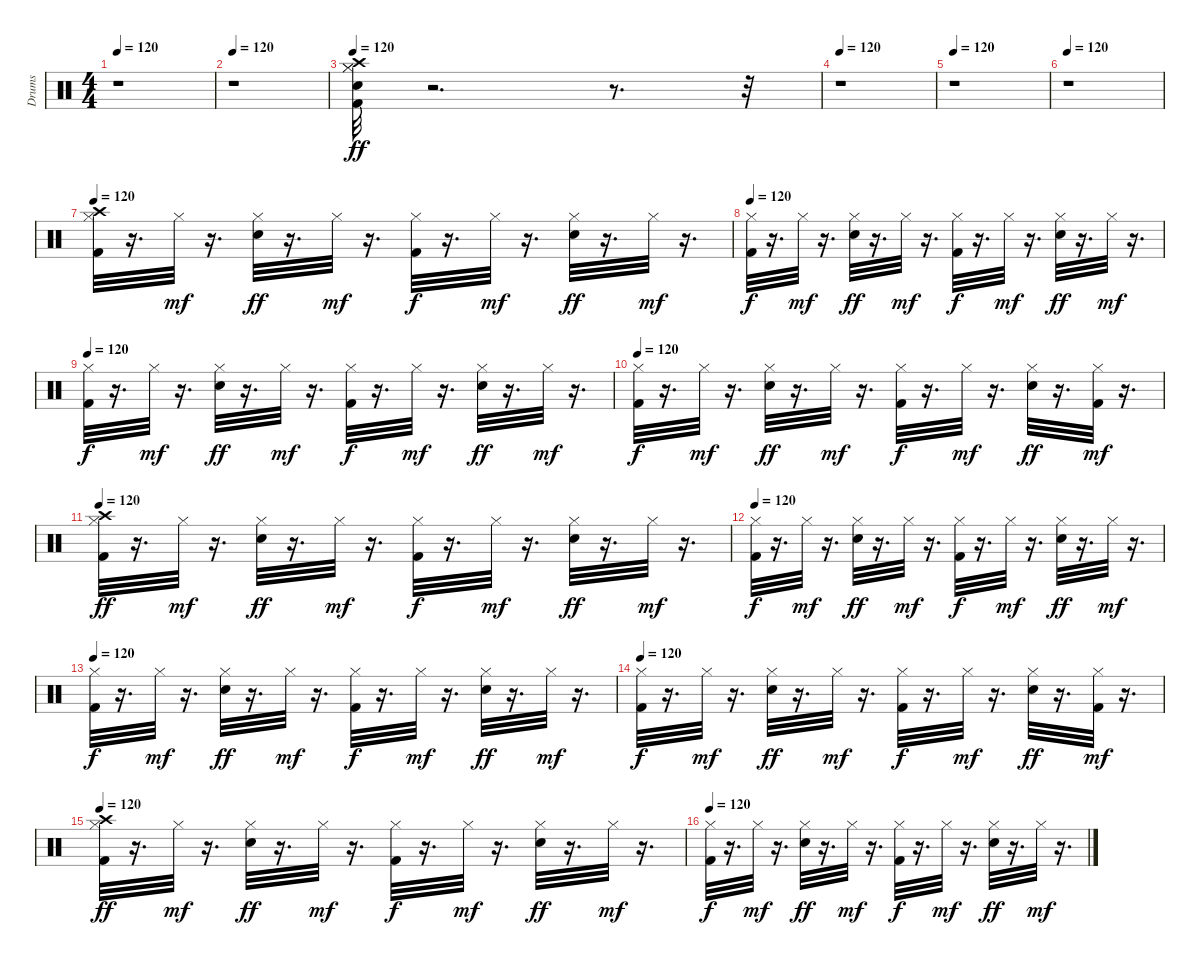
\track ("Drums" "Drums") {instrument percussion}
\staff {score}
\articulation defaults
\ts (4 4)
\tempo 120
\clef neutral
\ks c
r.1{dy ff} |
\tempo 120
r.1 |
\tempo 120
("Kick (hit) 2" "Hi-Hat (closed)" "Snare (hit) 2" "Hi-Hat (closed)" "Crash high (hit)").32 r.2{d} r.8{d} r.32 |
\tempo 120
r.1 |
\tempo 120
r.1 |
\tempo 120
r.1 |
\tempo 120
("Kick (hit) 2" "Hi-Hat (closed)" "Crash high (hit)").32 r.16{d} "Hi-Hat (closed)".32{dy mf} r.16{d} ("Snare (hit) 2" "Hi-Hat (closed)").32{dy ff} r.16{d} "Hi-Hat (closed)".32{dy mf} r.16{d} ("Kick (hit) 2" "Hi-Hat (closed)").32{dy f} r.16{d} "Hi-Hat (closed)".32{dy mf} r.16{d} ("Snare (hit) 2" "Hi-Hat (closed)").32{dy ff} r.16{d} "Hi-Hat (closed)".32{dy mf} r.16{d} |
\tempo 120
("Kick (hit) 2" "Hi-Hat (closed)").32{dy f} r.16{d} "Hi-Hat (closed)".32{dy mf} r.16{d} ("Snare (hit) 2" "Hi-Hat (closed)").32{dy ff} r.16{d} "Hi-Hat (closed)".32{dy mf} r.16{d} ("Kick (hit) 2" "Hi-Hat (closed)").32{dy f} r.16{d} "Hi-Hat (closed)".32{dy mf} r.16{d} ("Snare (hit) 2" "Hi-Hat (closed)").32{dy ff} r.16{d} "Hi-Hat (closed)".32{dy mf} r.16{d} |
\tempo 120
("Kick (hit) 2" "Hi-Hat (closed)").32{dy f} r.16{d} "Hi-Hat (closed)".32{dy mf} r.16{d} ("Snare (hit) 2" "Hi-Hat (closed)").32{dy ff} r.16{d} "Hi-Hat (closed)".32{dy mf} r.16{d} ("Kick (hit) 2" "Hi-Hat (closed)").32{dy f} r.16{d} "Hi-Hat (closed)".32{dy mf} r.16{d} ("Snare (hit) 2" "Hi-Hat (closed)").32{dy ff} r.16{d} "Hi-Hat (closed)".32{dy mf} r.16{d} |
\tempo 120
("Kick (hit) 2" "Hi-Hat (closed)").32{dy f} r.16{d} "Hi-Hat (closed)".32{dy mf} r.16{d} ("Snare (hit) 2" "Hi-Hat (closed)").32{dy ff} r.16{d} "Hi-Hat (closed)".32{dy mf} r.16{d} ("Kick (hit) 2" "Hi-Hat (closed)").32{dy f} r.16{d} "Hi-Hat (closed)".32{dy mf} r.16{d} ("Snare (hit) 2" "Hi-Hat (closed)").32{dy ff} r.16{d} ("Kick (hit) 2" "Hi-Hat (closed)").32{dy mf} r.16{d} |
\tempo 120
("Kick (hit) 2" "Hi-Hat (closed)" "Crash high (hit)").32{dy ff} r.16{d} "Hi-Hat (closed)".32{dy mf} r.16{d} ("Snare (hit) 2" "Hi-Hat (closed)").32{dy ff} r.16{d} "Hi-Hat (closed)".32{dy mf} r.16{d} ("Kick (hit) 2" "Hi-Hat (closed)").32{dy f} r.16{d} "Hi-Hat (closed)".32{dy mf} r.16{d} ("Snare (hit) 2" "Hi-Hat (closed)").32{dy ff} r.16{d} "Hi-Hat (closed)".32{dy mf} r.16{d} |
\tempo 120
("Kick (hit) 2" "Hi-Hat (closed)").32{dy f} r.16{d} "Hi-Hat (closed)".32{dy mf} r.16{d} ("Snare (hit) 2" "Hi-Hat (closed)").32{dy ff} r.16{d} "Hi-Hat (closed)".32{dy mf} r.16{d} ("Kick (hit) 2" "Hi-Hat (closed)").32{dy f} r.16{d} "Hi-Hat (closed)".32{dy mf} r.16{d} ("Snare (hit) 2" "Hi-Hat (closed)").32{dy ff} r.16{d} "Hi-Hat (closed)".32{dy mf} r.16{d} |
\tempo 120
("Kick (hit) 2" "Hi-Hat (closed)").32{dy f} r.16{d} "Hi-Hat (closed)".32{dy mf} r.16{d} ("Snare (hit) 2" "Hi-Hat (closed)").32{dy ff} r.16{d} "Hi-Hat (closed)".32{dy mf} r.16{d} ("Kick (hit) 2" "Hi-Hat (closed)").32{dy f} r.16{d} "Hi-Hat (closed)".32{dy mf} r.16{d} ("Snare (hit) 2" "Hi-Hat (closed)").32{dy ff} r.16{d} "Hi-Hat (closed)".32{dy mf} r.16{d} |
\tempo 120
("Kick (hit) 2" "Hi-Hat (closed)").32{dy f} r.16{d} "Hi-Hat (closed)".32{dy mf} r.16{d} ("Snare (hit) 2" "Hi-Hat (closed)").32{dy ff} r.16{d} "Hi-Hat (closed)".32{dy mf} r.16{d} ("Kick (hit) 2" "Hi-Hat (closed)").32{dy f} r.16{d} "Hi-Hat (closed)".32{dy mf} r.16{d} ("Snare (hit) 2" "Hi-Hat (closed)").32{dy ff} r.16{d} ("Kick (hit) 2" "Hi-Hat (closed)").32{dy mf} r.16{d} |
\tempo 120
("Kick (hit) 2" "Hi-Hat (closed)" "Crash high (hit)").32{dy ff} r.16{d} "Hi-Hat (closed)".32{dy mf} r.16{d} ("Snare (hit) 2" "Hi-Hat (closed)").32{dy ff} r.16{d} "Hi-Hat (closed)".32{dy mf} r.16{d} ("Kick (hit) 2" "Hi-Hat (closed)").32{dy f} r.16{d} "Hi-Hat (closed)".32{dy mf} r.16{d} ("Snare (hit) 2" "Hi-Hat (closed)").32{dy ff} r.16{d} "Hi-Hat (closed)".32{dy mf} r.16{d} |
\tempo 120
("Kick (hit) 2" "Hi-Hat (closed)").32{dy f} r.16{d} "Hi-Hat (closed)".32{dy mf} r.16{d} ("Snare (hit) 2" "Hi-Hat (closed)").32{dy ff} r.16{d} "Hi-Hat (closed)".32{dy mf} r.16{d} ("Kick (hit) 2" "Hi-Hat (closed)").32{dy f} r.16{d} "Hi-Hat (closed)".32{dy mf} r.16{d} ("Snare (hit) 2" "Hi-Hat (closed)").32{dy ff} r.16{d} "Hi-Hat (closed)".32{dy mf} r.16{d}
